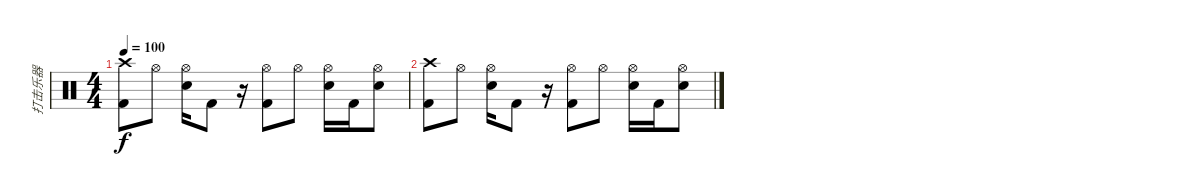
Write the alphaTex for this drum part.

\track ("打击乐器" "打击乐器") {instrument percussion}
\staff {score}
\articulation defaults
\ts (4 4)
\tempo 100
\clef neutral
\ks c
("Crash high (hit)" "Kick (hit) 2").8{dy f} "Hi-Hat (open)".8 ("Electric Snare (hit)" "Hi-Hat (open)").16 "Kick (hit) 2".8 r.16 ("Kick (hit) 2" "Hi-Hat (open)").8 "Hi-Hat (open)".8 ("Electric Snare (hit)" "Hi-Hat (open)").16 "Kick (hit) 2".16 ("Electric Snare (hit)" "Hi-Hat (open)").8 |
("Crash high (hit)" "Kick (hit) 2").8 "Hi-Hat (open)".8 ("Electric Snare (hit)" "Hi-Hat (open)").16 "Kick (hit) 2".8 r.16 ("Kick (hit) 2" "Hi-Hat (open)").8 "Hi-Hat (open)".8 ("Electric Snare (hit)" "Hi-Hat (open)").16 "Kick (hit) 2".16 ("Electric Snare (hit)" "Hi-Hat (open)").8
